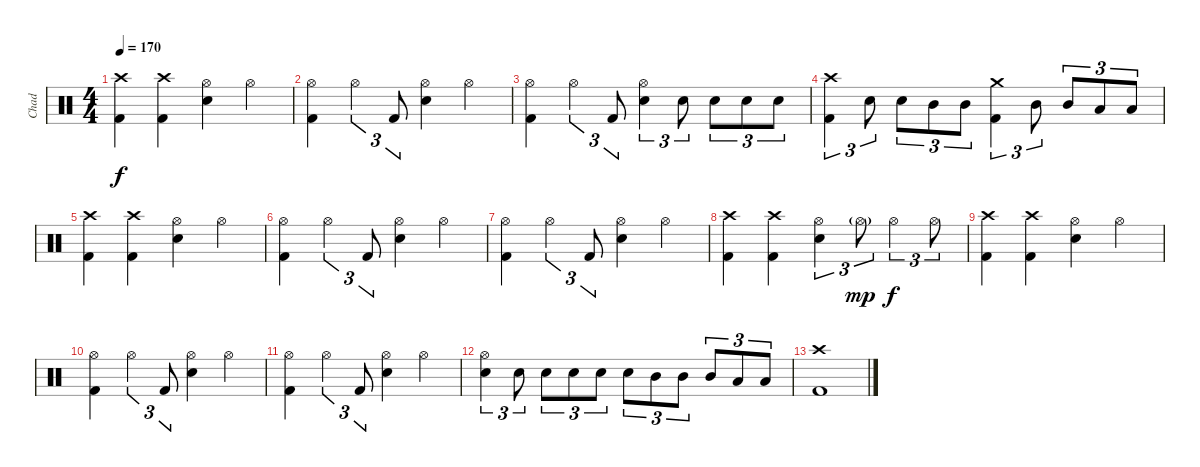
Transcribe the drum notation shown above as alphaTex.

\track ("Chad" "Chad") {instrument percussion}
\staff {score}
\articulation defaults
\ts (4 4)
\tempo 170
\clef neutral
\ks c
("Crash high (hit)" "Kick (hit) 2").4{dy f} ("Crash high (hit)" "Kick (hit) 2").4 ("Hi-Hat (open)" "Snare (hit) 2").4 "Hi-Hat (open)".4 |
("Hi-Hat (open)" "Kick (hit) 2").4 "Hi-Hat (open)".4{tu (3 2)} "Kick (hit) 2".8{tu (3 2)} ("Hi-Hat (open)" "Snare (hit) 2").4 "Hi-Hat (open)".4 |
("Hi-Hat (open)" "Kick (hit) 2").4 "Hi-Hat (open)".4{tu (3 2)} "Kick (hit) 2".8{tu (3 2)} ("Hi-Hat (open)" "Snare (hit) 2").4{tu (3 2)} "Snare (hit) 2".8{tu (3 2)} "Snare (hit) 2".8{tu (3 2)} "Snare (hit) 2".8{tu (3 2)} "Snare (hit) 2".8{tu (3 2)} |
("Crash high (hit)" "Kick (hit) 2").4{tu (3 2)} "Snare (hit) 2".8{tu (3 2)} "Snare (hit) 2".8{tu (3 2)} "Mid Tom (hit)".8{tu (3 2)} "Mid Tom (hit)".8{tu (3 2)} ("Crash medium (hit)" "Kick (hit) 2").4{tu (3 2)} "Mid Tom (hit)".8{tu (3 2)} "Mid Tom (hit)".8{tu (3 2)} "Low Tom (hit)".8{tu (3 2)} "Low Tom (hit)".8{tu (3 2)} |
("Crash high (hit)" "Kick (hit) 2").4 ("Crash high (hit)" "Kick (hit) 2").4 ("Hi-Hat (open)" "Snare (hit) 2").4 "Hi-Hat (open)".4 |
("Hi-Hat (open)" "Kick (hit) 2").4 "Hi-Hat (open)".4{tu (3 2)} "Kick (hit) 2".8{tu (3 2)} ("Hi-Hat (open)" "Snare (hit) 2").4 "Hi-Hat (open)".4 |
("Hi-Hat (open)" "Kick (hit) 2").4 "Hi-Hat (open)".4{tu (3 2)} "Kick (hit) 2".8{tu (3 2)} ("Hi-Hat (open)" "Snare (hit) 2").4 "Hi-Hat (open)".4 |
("Crash high (hit)" "Kick (hit) 2").4 ("Crash high (hit)" "Kick (hit) 2").4 ("Hi-Hat (open)" "Snare (hit) 2").4{tu (3 2)} "Hi-Hat (open)"{g}.8{tu (3 2) dy mp} "Hi-Hat (open)".4{tu (3 2) dy f} "Hi-Hat (open)".8{tu (3 2)} |
("Crash high (hit)" "Kick (hit) 2").4 ("Crash high (hit)" "Kick (hit) 2").4 ("Hi-Hat (open)" "Snare (hit) 2").4 "Hi-Hat (open)".4 |
("Hi-Hat (open)" "Kick (hit) 2").4 "Hi-Hat (open)".4{tu (3 2)} "Kick (hit) 2".8{tu (3 2)} ("Hi-Hat (open)" "Snare (hit) 2").4 "Hi-Hat (open)".4 |
("Hi-Hat (open)" "Kick (hit) 2").4 "Hi-Hat (open)".4{tu (3 2)} "Kick (hit) 2".8{tu (3 2)} ("Hi-Hat (open)" "Snare (hit) 2").4 "Hi-Hat (open)".4 |
("Hi-Hat (open)" "Snare (hit) 2").4{tu (3 2)} "Snare (hit) 2".8{tu (3 2)} "Snare (hit) 2".8{tu (3 2)} "Snare (hit) 2".8{tu (3 2)} "Snare (hit) 2".8{tu (3 2)} "Snare (hit) 2".8{tu (3 2)} "Mid Tom (hit)".8{tu (3 2)} "Mid Tom (hit)".8{tu (3 2)} "Mid Tom (hit)".8{tu (3 2)} "Low Floor Tom (hit)".8{tu (3 2)} "Low Floor Tom (hit)".8{tu (3 2)} |
("Crash high (hit)" "Kick (hit) 2").1
